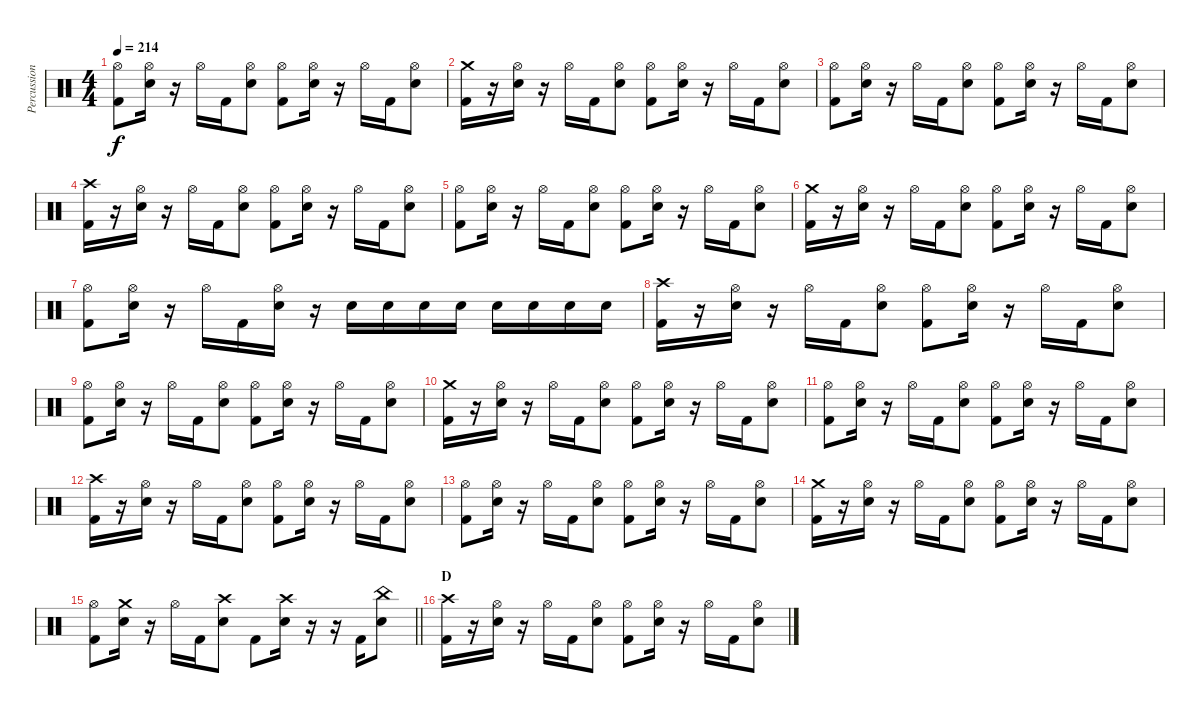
\track ("Percussion" "Percussion") {instrument percussion}
\staff {score}
\articulation defaults
\ts (4 4)
\tempo 214
\clef neutral
\ks c
("Kick (hit) 2" "Hi-Hat (open)").8{dy f} ("Electric Snare (hit)" "Hi-Hat (open)").16 r.16 "Hi-Hat (open)".16 "Kick (hit) 2".16 ("Electric Snare (hit)" "Hi-Hat (open)").8 ("Kick (hit) 2" "Hi-Hat (open)").8 ("Electric Snare (hit)" "Hi-Hat (open)").16 r.16 "Hi-Hat (open)".16 "Kick (hit) 2".16 ("Electric Snare (hit)" "Hi-Hat (open)").8 |
("Kick (hit) 2" "Crash medium (hit)").16 r.16 ("Electric Snare (hit)" "Hi-Hat (open)").16 r.16 "Hi-Hat (open)".16 "Kick (hit) 2".16 ("Electric Snare (hit)" "Hi-Hat (open)").8 ("Kick (hit) 2" "Hi-Hat (open)").8 ("Electric Snare (hit)" "Hi-Hat (open)").16 r.16 "Hi-Hat (open)".16 "Kick (hit) 2".16 ("Electric Snare (hit)" "Hi-Hat (open)").8 |
("Kick (hit) 2" "Hi-Hat (open)").8 ("Electric Snare (hit)" "Hi-Hat (open)").16 r.16 "Hi-Hat (open)".16 "Kick (hit) 2".16 ("Electric Snare (hit)" "Hi-Hat (open)").8 ("Kick (hit) 2" "Hi-Hat (open)").8 ("Electric Snare (hit)" "Hi-Hat (open)").16 r.16 "Hi-Hat (open)".16 "Kick (hit) 2".16 ("Electric Snare (hit)" "Hi-Hat (open)").8 |
("Crash high (hit)" "Kick (hit) 2").16 r.16 ("Electric Snare (hit)" "Hi-Hat (open)").16 r.16 "Hi-Hat (open)".16 "Kick (hit) 2".16 ("Electric Snare (hit)" "Hi-Hat (open)").8 ("Kick (hit) 2" "Hi-Hat (open)").8 ("Electric Snare (hit)" "Hi-Hat (open)").16 r.16 "Hi-Hat (open)".16 "Kick (hit) 2".16 ("Electric Snare (hit)" "Hi-Hat (open)").8 |
("Kick (hit) 2" "Hi-Hat (open)").8 ("Electric Snare (hit)" "Hi-Hat (open)").16 r.16 "Hi-Hat (open)".16 "Kick (hit) 2".16 ("Electric Snare (hit)" "Hi-Hat (open)").8 ("Kick (hit) 2" "Hi-Hat (open)").8 ("Electric Snare (hit)" "Hi-Hat (open)").16 r.16 "Hi-Hat (open)".16 "Kick (hit) 2".16 ("Electric Snare (hit)" "Hi-Hat (open)").8 |
("Kick (hit) 2" "Crash medium (hit)").16 r.16 ("Electric Snare (hit)" "Hi-Hat (open)").16 r.16 "Hi-Hat (open)".16 "Kick (hit) 2".16 ("Electric Snare (hit)" "Hi-Hat (open)").8 ("Kick (hit) 2" "Hi-Hat (open)").8 ("Electric Snare (hit)" "Hi-Hat (open)").16 r.16 "Hi-Hat (open)".16 "Kick (hit) 2".16 ("Electric Snare (hit)" "Hi-Hat (open)").8 |
("Kick (hit) 2" "Hi-Hat (open)").8 ("Electric Snare (hit)" "Hi-Hat (open)").16 r.16 "Hi-Hat (open)".16 "Kick (hit) 2".16 ("Electric Snare (hit)" "Hi-Hat (open)").16 r.16 "Electric Snare (hit)".16 "Electric Snare (hit)".16 "Electric Snare (hit)".16 "Electric Snare (hit)".16 "Electric Snare (hit)".16 "Electric Snare (hit)".16 "Electric Snare (hit)".16 "Electric Snare (hit)".16 |
("Crash high (hit)" "Kick (hit) 2").16 r.16 ("Electric Snare (hit)" "Hi-Hat (open)").16 r.16 "Hi-Hat (open)".16 "Kick (hit) 2".16 ("Electric Snare (hit)" "Hi-Hat (open)").8 ("Kick (hit) 2" "Hi-Hat (open)").8 ("Electric Snare (hit)" "Hi-Hat (open)").16 r.16 "Hi-Hat (open)".16 "Kick (hit) 2".16 ("Electric Snare (hit)" "Hi-Hat (open)").8 |
("Kick (hit) 2" "Hi-Hat (open)").8 ("Electric Snare (hit)" "Hi-Hat (open)").16 r.16 "Hi-Hat (open)".16 "Kick (hit) 2".16 ("Electric Snare (hit)" "Hi-Hat (open)").8 ("Kick (hit) 2" "Hi-Hat (open)").8 ("Electric Snare (hit)" "Hi-Hat (open)").16 r.16 "Hi-Hat (open)".16 "Kick (hit) 2".16 ("Electric Snare (hit)" "Hi-Hat (open)").8 |
("Kick (hit) 2" "Crash medium (hit)").16 r.16 ("Electric Snare (hit)" "Hi-Hat (open)").16 r.16 "Hi-Hat (open)".16 "Kick (hit) 2".16 ("Electric Snare (hit)" "Hi-Hat (open)").8 ("Kick (hit) 2" "Hi-Hat (open)").8 ("Electric Snare (hit)" "Hi-Hat (open)").16 r.16 "Hi-Hat (open)".16 "Kick (hit) 2".16 ("Electric Snare (hit)" "Hi-Hat (open)").8 |
("Kick (hit) 2" "Hi-Hat (open)").8 ("Electric Snare (hit)" "Hi-Hat (open)").16 r.16 "Hi-Hat (open)".16 "Kick (hit) 2".16 ("Electric Snare (hit)" "Hi-Hat (open)").8 ("Kick (hit) 2" "Hi-Hat (open)").8 ("Electric Snare (hit)" "Hi-Hat (open)").16 r.16 "Hi-Hat (open)".16 "Kick (hit) 2".16 ("Electric Snare (hit)" "Hi-Hat (open)").8 |
("Crash high (hit)" "Kick (hit) 2").16 r.16 ("Electric Snare (hit)" "Hi-Hat (open)").16 r.16 "Hi-Hat (open)".16 "Kick (hit) 2".16 ("Electric Snare (hit)" "Hi-Hat (open)").8 ("Kick (hit) 2" "Hi-Hat (open)").8 ("Electric Snare (hit)" "Hi-Hat (open)").16 r.16 "Hi-Hat (open)".16 "Kick (hit) 2".16 ("Electric Snare (hit)" "Hi-Hat (open)").8 |
("Kick (hit) 2" "Hi-Hat (open)").8 ("Electric Snare (hit)" "Hi-Hat (open)").16 r.16 "Hi-Hat (open)".16 "Kick (hit) 2".16 ("Electric Snare (hit)" "Hi-Hat (open)").8 ("Kick (hit) 2" "Hi-Hat (open)").8 ("Electric Snare (hit)" "Hi-Hat (open)").16 r.16 "Hi-Hat (open)".16 "Kick (hit) 2".16 ("Electric Snare (hit)" "Hi-Hat (open)").8 |
("Kick (hit) 2" "Crash medium (hit)").16 r.16 ("Electric Snare (hit)" "Hi-Hat (open)").16 r.16 "Hi-Hat (open)".16 "Kick (hit) 2".16 ("Electric Snare (hit)" "Hi-Hat (open)").8 ("Kick (hit) 2" "Hi-Hat (open)").8 ("Electric Snare (hit)" "Hi-Hat (open)").16 r.16 "Hi-Hat (open)".16 "Kick (hit) 2".16 ("Electric Snare (hit)" "Hi-Hat (open)").8 |
\barLineRight lightlight
("Kick (hit) 2" "Hi-Hat (open)").8 ("Electric Snare (hit)" "Crash medium (hit)").16 r.16 "Hi-Hat (open)".16 "Kick (hit) 2".16 ("Electric Snare (hit)" "Crash high (hit)").8 "Kick (hit) 2".8 ("Electric Snare (hit)" "Crash high (hit)").16 r.16 r.16 "Kick (hit) 2".16 ("Electric Snare (hit)" "China (hit)").8 |
\section ("" "D")
("Crash high (hit)" "Kick (hit) 2").16 r.16 ("Electric Snare (hit)" "Hi-Hat (open)").16 r.16 "Hi-Hat (open)".16 "Kick (hit) 2".16 ("Electric Snare (hit)" "Hi-Hat (open)").8 ("Kick (hit) 2" "Hi-Hat (open)").8 ("Electric Snare (hit)" "Hi-Hat (open)").16 r.16 "Hi-Hat (open)".16 "Kick (hit) 2".16 ("Electric Snare (hit)" "Hi-Hat (open)").8
